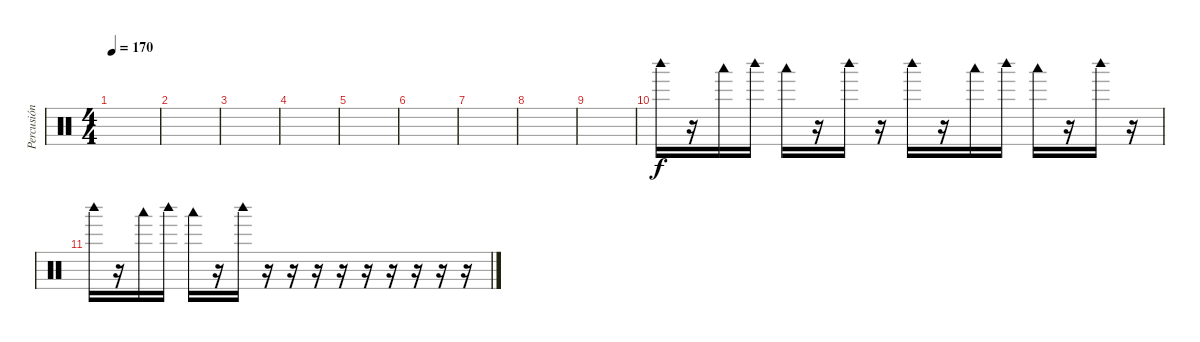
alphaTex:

\track ("Percusión" "Percusión") {instrument percussion}
\staff {score}
\articulation defaults
\ts (4 4)
\tempo 170
\clef neutral
\ks c
|
|
|
|
|
|
|
|
|
"Woodblock high (hit)".16 r.16 "Woodblock low (hit)".16 "Woodblock high (hit)".16 "Woodblock low (hit)".16 r.16 "Woodblock high (hit)".16 r.16 "Woodblock high (hit)".16 r.16 "Woodblock low (hit)".16 "Woodblock high (hit)".16 "Woodblock low (hit)".16 r.16 "Woodblock high (hit)".16 r.16 |
"Woodblock high (hit)".16 r.16 "Woodblock low (hit)".16 "Woodblock high (hit)".16 "Woodblock low (hit)".16 r.16 "Woodblock high (hit)".16 r.16 r.16 r.16 r.16 r.16 r.16 r.16 r.16 r.16
